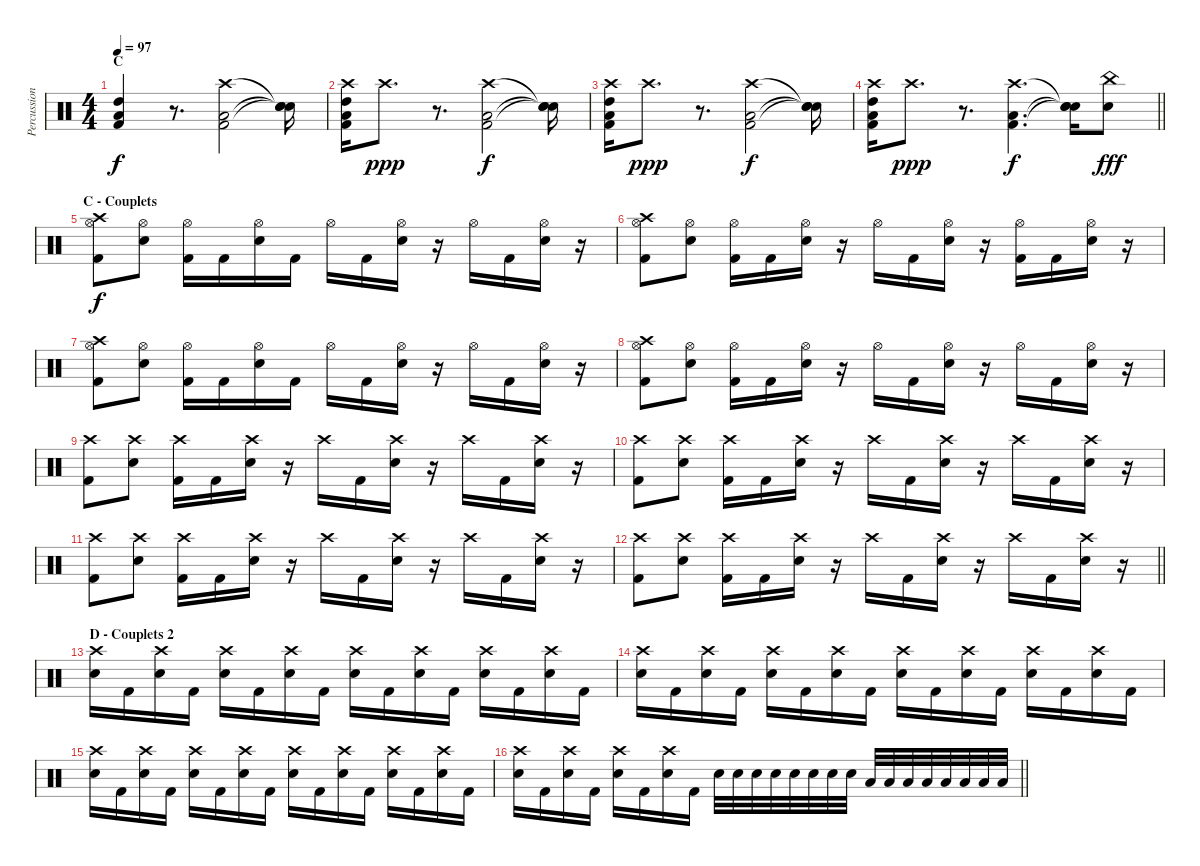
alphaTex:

\track ("Percussions" "Percussion") {instrument percussion}
\staff {score}
\articulation defaults
\ts (4 4)
\section ("" "C")
\tempo 97
\clef neutral
\ks c
("High Tom (hit)" "Low Tom (hit)" "Kick (hit) 2").4{dy f} r.8{d} ("Crash high (hit)" "Low Tom (hit)" "Kick (hit) 2").2 ("Snare (hit)"{t} "Snare (hit)"{t} "Snare (hit)"{t}).16 |
("Crash high (hit)" "High Tom (hit)" "Low Tom (hit)" "Kick (hit) 2").16 "Crash high (hit)".8{d dy ppp} r.8{d} ("Crash high (hit)" "Low Tom (hit)" "Kick (hit) 2").2{dy f} ("Snare (hit)"{t} "Snare (hit)"{t} "Snare (hit)"{t}).16 |
("Crash high (hit)" "High Tom (hit)" "Low Tom (hit)" "Kick (hit) 2").16 "Crash high (hit)".8{d dy ppp} r.8{d} ("Crash high (hit)" "Low Tom (hit)" "Kick (hit) 2").2{dy f} ("Snare (hit)"{t} "Snare (hit)"{t} "Snare (hit)"{t}).16 |
\barLineRight lightlight
("Crash high (hit)" "High Tom (hit)" "Low Tom (hit)" "Kick (hit) 2").16 "Crash high (hit)".8{d dy ppp} r.8{d} ("Crash high (hit)" "Low Tom (hit)" "Kick (hit) 2").4{d dy f} ("Snare (hit)"{t} "Snare (hit)"{t} "Snare (hit)"{t}).16 ("China (hit)" "Snare (hit) 2").8{dy fff} |
\section ("" "C - Couplets")
("Crash high (hit)" "Hi-Hat (open)" "Kick (hit) 2").8{dy f} ("Hi-Hat (open)" "Snare (hit) 2").8 ("Hi-Hat (open)" "Kick (hit) 2").16 "Kick (hit) 2".16 ("Hi-Hat (open)" "Snare (hit) 2").16 "Kick (hit) 2".16 "Hi-Hat (open)".16 "Kick (hit) 2".16 ("Hi-Hat (open)" "Snare (hit) 2").16 r.16 "Hi-Hat (open)".16 "Kick (hit) 2".16 ("Hi-Hat (open)" "Snare (hit) 2").16 r.16 |
("Crash high (hit)" "Hi-Hat (open)" "Kick (hit) 2").8 ("Hi-Hat (open)" "Snare (hit) 2").8 ("Hi-Hat (open)" "Kick (hit) 2").16 "Kick (hit) 2".16 ("Hi-Hat (open)" "Snare (hit) 2").16 r.16 "Hi-Hat (open)".16 "Kick (hit) 2".16 ("Hi-Hat (open)" "Snare (hit) 2").16 r.16 ("Hi-Hat (open)" "Kick (hit) 2").16 "Kick (hit) 2".16 ("Hi-Hat (open)" "Snare (hit) 2").16 r.16 |
("Crash high (hit)" "Hi-Hat (open)" "Kick (hit) 2").8 ("Hi-Hat (open)" "Snare (hit) 2").8 ("Hi-Hat (open)" "Kick (hit) 2").16 "Kick (hit) 2".16 ("Hi-Hat (open)" "Snare (hit) 2").16 "Kick (hit) 2".16 "Hi-Hat (open)".16 "Kick (hit) 2".16 ("Hi-Hat (open)" "Snare (hit) 2").16 r.16 "Hi-Hat (open)".16 "Kick (hit) 2".16 ("Hi-Hat (open)" "Snare (hit) 2").16 r.16 |
("Crash high (hit)" "Hi-Hat (open)" "Kick (hit) 2").8 ("Hi-Hat (open)" "Snare (hit) 2").8 ("Hi-Hat (open)" "Kick (hit) 2").16 "Kick (hit) 2".16 ("Hi-Hat (open)" "Snare (hit) 2").16 r.16 "Hi-Hat (open)".16 "Kick (hit) 2".16 ("Hi-Hat (open)" "Snare (hit) 2").16 r.16 "Hi-Hat (open)".16 "Kick (hit) 2".16 ("Hi-Hat (open)" "Snare (hit) 2").16 r.16 |
("Crash high (hit)" "Kick (hit) 2").8 ("Crash high (hit)" "Snare (hit) 2").8 ("Crash high (hit)" "Kick (hit) 2").16 "Kick (hit) 2".16 ("Crash high (hit)" "Snare (hit) 2").16 r.16 "Crash high (hit)".16 "Kick (hit) 2".16 ("Crash high (hit)" "Snare (hit) 2").16 r.16 "Crash high (hit)".16 "Kick (hit) 2".16 ("Crash high (hit)" "Snare (hit) 2").16 r.16 |
("Crash high (hit)" "Kick (hit) 2").8 ("Crash high (hit)" "Snare (hit) 2").8 ("Crash high (hit)" "Kick (hit) 2").16 "Kick (hit) 2".16 ("Crash high (hit)" "Snare (hit) 2").16 r.16 "Crash high (hit)".16 "Kick (hit) 2".16 ("Crash high (hit)" "Snare (hit) 2").16 r.16 "Crash high (hit)".16 "Kick (hit) 2".16 ("Crash high (hit)" "Snare (hit) 2").16 r.16 |
("Crash high (hit)" "Kick (hit) 2").8 ("Crash high (hit)" "Snare (hit) 2").8 ("Crash high (hit)" "Kick (hit) 2").16 "Kick (hit) 2".16 ("Crash high (hit)" "Snare (hit) 2").16 r.16 "Crash high (hit)".16 "Kick (hit) 2".16 ("Crash high (hit)" "Snare (hit) 2").16 r.16 "Crash high (hit)".16 "Kick (hit) 2".16 ("Crash high (hit)" "Snare (hit) 2").16 r.16 |
\barLineRight lightlight
("Crash high (hit)" "Kick (hit) 2").8 ("Crash high (hit)" "Snare (hit) 2").8 ("Crash high (hit)" "Kick (hit) 2").16 "Kick (hit) 2".16 ("Crash high (hit)" "Snare (hit) 2").16 r.16 "Crash high (hit)".16 "Kick (hit) 2".16 ("Crash high (hit)" "Snare (hit) 2").16 r.16 "Crash high (hit)".16 "Kick (hit) 2".16 ("Crash high (hit)" "Snare (hit) 2").16 r.16 |
\section ("" "D - Couplets 2")
("Crash high (hit)" "Snare (hit) 2").16 "Kick (hit) 2".16 ("Crash high (hit)" "Snare (hit) 2").16 "Kick (hit) 2".16 ("Crash high (hit)" "Snare (hit) 2").16 "Kick (hit) 2".16 ("Crash high (hit)" "Snare (hit) 2").16 "Kick (hit) 2".16 ("Crash high (hit)" "Snare (hit) 2").16 "Kick (hit) 2".16 ("Crash high (hit)" "Snare (hit) 2").16 "Kick (hit) 2".16 ("Crash high (hit)" "Snare (hit) 2").16 "Kick (hit) 2".16 ("Crash high (hit)" "Snare (hit) 2").16 "Kick (hit) 2".16 |
("Crash high (hit)" "Snare (hit) 2").16 "Kick (hit) 2".16 ("Crash high (hit)" "Snare (hit) 2").16 "Kick (hit) 2".16 ("Crash high (hit)" "Snare (hit) 2").16 "Kick (hit) 2".16 ("Crash high (hit)" "Snare (hit) 2").16 "Kick (hit) 2".16 ("Crash high (hit)" "Snare (hit) 2").16 "Kick (hit) 2".16 ("Crash high (hit)" "Snare (hit) 2").16 "Kick (hit) 2".16 ("Crash high (hit)" "Snare (hit) 2").16 "Kick (hit) 2".16 ("Crash high (hit)" "Snare (hit) 2").16 "Kick (hit) 2".16 |
("Crash high (hit)" "Snare (hit) 2").16 "Kick (hit) 2".16 ("Crash high (hit)" "Snare (hit) 2").16 "Kick (hit) 2".16 ("Crash high (hit)" "Snare (hit) 2").16 "Kick (hit) 2".16 ("Crash high (hit)" "Snare (hit) 2").16 "Kick (hit) 2".16 ("Crash high (hit)" "Snare (hit) 2").16 "Kick (hit) 2".16 ("Crash high (hit)" "Snare (hit) 2").16 "Kick (hit) 2".16 ("Crash high (hit)" "Snare (hit) 2").16 "Kick (hit) 2".16 ("Crash high (hit)" "Snare (hit) 2").16 "Kick (hit) 2".16 |
\barLineRight lightlight
("Crash high (hit)" "Snare (hit) 2").16 "Kick (hit) 2".16 ("Crash high (hit)" "Snare (hit) 2").16 "Kick (hit) 2".16 ("Crash high (hit)" "Snare (hit) 2").16 "Kick (hit) 2".16 ("Crash high (hit)" "Snare (hit) 2").16 "Kick (hit) 2".16 "Snare (hit) 2".32 "Snare (hit) 2".32 "Snare (hit) 2".32 "Snare (hit) 2".32 "Snare (hit) 2".32 "Snare (hit) 2".32 "Snare (hit) 2".32 "Snare (hit) 2".32 "Low Tom (hit)".32 "Low Tom (hit)".32 "Low Tom (hit)".32 "Low Tom (hit)".32 "Low Tom (hit)".32 "Low Floor Tom (hit)".32 "Low Floor Tom (hit)".32 "Low Floor Tom (hit)".32
